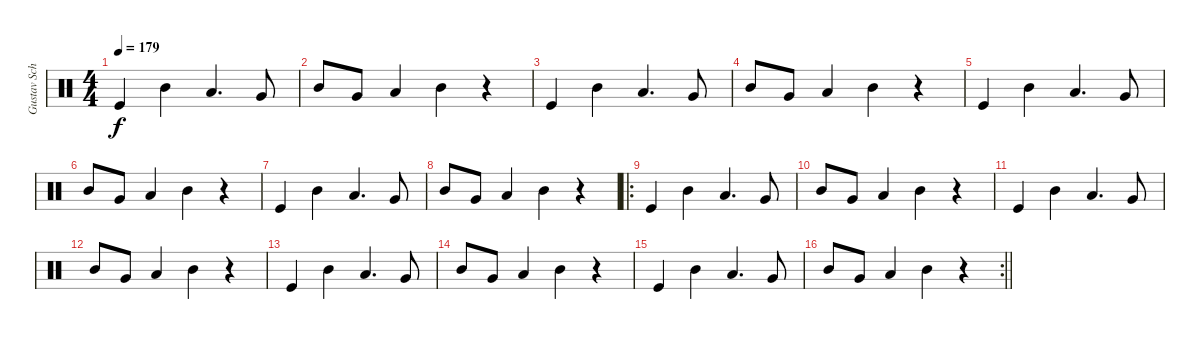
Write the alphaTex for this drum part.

\track ("Gustav Schäfer" "Gustav Sch") {instrument percussion}
\staff {score}
\articulation defaults
\ts (4 4)
\tempo 179
\clef neutral
\ks c "Kick (hit)".4{dy f} "Mid Tom (hit)".4 "Low Tom (hit)".4{d} "Very Low Tom (hit)".8
|
"Mid Tom (hit)".8 "Very Low Tom (hit)".8 "Low Tom (hit)".4 "Mid Tom (hit)".4 r.4 |
"Kick (hit)".4 "Mid Tom (hit)".4 "Low Tom (hit)".4{d} "Very Low Tom (hit)".8 |
"Mid Tom (hit)".8 "Very Low Tom (hit)".8 "Low Tom (hit)".4 "Mid Tom (hit)".4 r.4 |
"Kick (hit)".4 "Mid Tom (hit)".4 "Low Tom (hit)".4{d} "Very Low Tom (hit)".8 |
"Mid Tom (hit)".8 "Very Low Tom (hit)".8 "Low Tom (hit)".4 "Mid Tom (hit)".4 r.4 |
"Kick (hit)".4 "Mid Tom (hit)".4 "Low Tom (hit)".4{d} "Very Low Tom (hit)".8 |
"Mid Tom (hit)".8 "Very Low Tom (hit)".8 "Low Tom (hit)".4 "Mid Tom (hit)".4 r.4 |
\ro "Kick (hit)".4 "Mid Tom (hit)".4 "Low Tom (hit)".4{d} "Very Low Tom (hit)".8
|
"Mid Tom (hit)".8 "Very Low Tom (hit)".8 "Low Tom (hit)".4 "Mid Tom (hit)".4 r.4 |
"Kick (hit)".4 "Mid Tom (hit)".4 "Low Tom (hit)".4{d} "Very Low Tom (hit)".8 |
"Mid Tom (hit)".8 "Very Low Tom (hit)".8 "Low Tom (hit)".4 "Mid Tom (hit)".4 r.4 |
"Kick (hit)".4 "Mid Tom (hit)".4 "Low Tom (hit)".4{d} "Very Low Tom (hit)".8 |
"Mid Tom (hit)".8 "Very Low Tom (hit)".8 "Low Tom (hit)".4 "Mid Tom (hit)".4 r.4 |
"Kick (hit)".4 "Mid Tom (hit)".4 "Low Tom (hit)".4{d} "Very Low Tom (hit)".8 |
\rc 2
\barLineRight lightlight "Mid Tom (hit)".8 "Very Low Tom (hit)".8 "Low Tom (hit)".4 "Mid Tom (hit)".4
r.4
